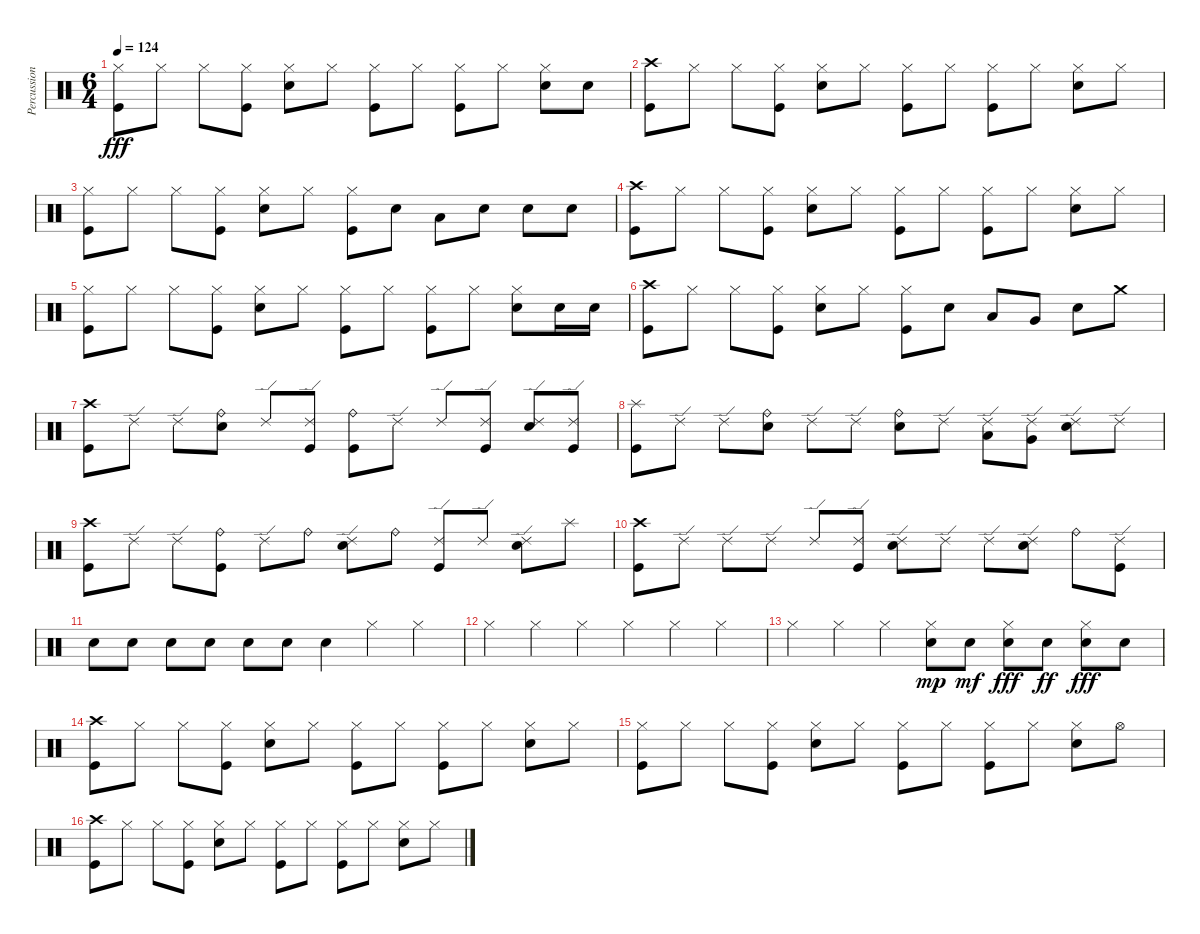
\track ("Percussion" "Percussion") {instrument percussion}
\staff {score}
\articulation defaults
\ts (6 4)
\tempo 124
\clef neutral
\ks c
("Hi-Hat (closed)" "Kick (hit)").8{dy fff} "Hi-Hat (closed)".8 "Hi-Hat (closed)".8 ("Hi-Hat (closed)" "Kick (hit)").8 ("Hi-Hat (closed)" "Snare (hit) 2").8 "Hi-Hat (closed)".8 ("Hi-Hat (closed)" "Kick (hit)").8 "Hi-Hat (closed)".8 ("Hi-Hat (closed)" "Kick (hit)").8 "Hi-Hat (closed)".8 ("Hi-Hat (closed)" "Snare (hit) 2").8 "Snare (hit) 2".8 |
("Crash high (hit)" "Kick (hit)").8 "Hi-Hat (closed)".8 "Hi-Hat (closed)".8 ("Hi-Hat (closed)" "Kick (hit)").8 ("Hi-Hat (closed)" "Snare (hit) 2").8 "Hi-Hat (closed)".8 ("Hi-Hat (closed)" "Kick (hit)").8 "Hi-Hat (closed)".8 ("Hi-Hat (closed)" "Kick (hit)").8 "Hi-Hat (closed)".8 ("Hi-Hat (closed)" "Snare (hit) 2").8 "Hi-Hat (closed)".8 |
("Hi-Hat (closed)" "Kick (hit)").8 "Hi-Hat (closed)".8 "Hi-Hat (closed)".8 ("Hi-Hat (closed)" "Kick (hit)").8 ("Hi-Hat (closed)" "Snare (hit) 2").8 "Hi-Hat (closed)".8 ("Hi-Hat (closed)" "Kick (hit)").8 "Snare (hit) 2".8 "Low Floor Tom (hit)".8 "Snare (hit) 2".8 "Snare (hit) 2".8 "Snare (hit) 2".8 |
("Crash high (hit)" "Kick (hit)").8 "Hi-Hat (closed)".8 "Hi-Hat (closed)".8 ("Hi-Hat (closed)" "Kick (hit)").8 ("Hi-Hat (closed)" "Snare (hit) 2").8 "Hi-Hat (closed)".8 ("Hi-Hat (closed)" "Kick (hit)").8 "Hi-Hat (closed)".8 ("Hi-Hat (closed)" "Kick (hit)").8 "Hi-Hat (closed)".8 ("Hi-Hat (closed)" "Snare (hit) 2").8 "Hi-Hat (closed)".8 |
("Hi-Hat (closed)" "Kick (hit)").8 "Hi-Hat (closed)".8 "Hi-Hat (closed)".8 ("Hi-Hat (closed)" "Kick (hit)").8 ("Hi-Hat (closed)" "Snare (hit) 2").8 "Hi-Hat (closed)".8 ("Hi-Hat (closed)" "Kick (hit)").8 "Hi-Hat (closed)".8 ("Hi-Hat (closed)" "Kick (hit)").8 "Hi-Hat (closed)".8 ("Hi-Hat (closed)" "Snare (hit) 2").8 "Snare (hit) 2".16 "Snare (hit) 2".16 |
("Crash high (hit)" "Kick (hit)").8 "Hi-Hat (closed)".8 "Hi-Hat (closed)".8 ("Hi-Hat (closed)" "Kick (hit)").8 ("Hi-Hat (closed)" "Snare (hit) 2").8 "Hi-Hat (closed)".8 ("Hi-Hat (closed)" "Kick (hit)").8 "Snare (hit) 2".8 "Low Tom (hit)".8 "Very Low Tom (hit)".8 "Snare (hit) 2".8 "Crash medium (hit)".8 |
("Crash high (hit)" "Kick (hit)").8 "Ride (edge) 2".8 "Ride (edge) 2".8 ("Ride (bell)" "Snare (hit) 2").8 "Ride (edge) 2".8 ("Ride (edge) 2" "Kick (hit)").8 ("Ride (bell)" "Kick (hit)").8 "Ride (edge) 2".8 "Ride (edge) 2".8 ("Ride (edge) 2" "Kick (hit)").8 ("Ride (edge) 2" "Snare (hit) 2").8 ("Ride (edge) 2" "Kick (hit)").8 |
("Splash (hit)" "Kick (hit)").8 "Ride (edge) 2".8 "Ride (edge) 2".8 ("Ride (bell)" "Snare (hit) 2").8 "Ride (edge) 2".8 "Ride (edge) 2".8 ("Ride (bell)" "Snare (hit) 2").8 "Ride (edge) 2".8 ("Ride (edge) 2" "Low Tom (hit)").8 ("Ride (edge) 2" "Very Low Tom (hit)").8 ("Ride (edge) 2" "Snare (hit) 2").8 "Ride (edge) 2".8 |
("Crash high (hit)" "Kick (hit)").8 "Ride (edge) 2".8 "Ride (edge) 2".8 ("Ride (bell)" "Kick (hit)").8 "Ride (edge) 2".8 "Ride (bell)".8 ("Ride (edge) 2" "Snare (hit) 2").8 "Ride (bell)".8 ("Ride (edge) 2" "Kick (hit)").8 "Ride (edge) 2".8 ("Ride (edge) 2" "Snare (hit) 2").8 "Splash (hit)".8 |
("Crash high (hit)" "Kick (hit)").8 "Ride (edge) 2".8 "Ride (edge) 2".8 "Ride (edge) 2".8 "Ride (edge) 2".8 ("Ride (edge) 2" "Kick (hit)").8 ("Ride (edge) 2" "Snare (hit) 2").8 "Ride (edge) 2".8 "Ride (edge) 2".8 ("Ride (edge) 2" "Snare (hit) 2").8 "Ride (bell)".8 ("Ride (edge) 2" "Kick (hit)").8 |
"Snare (hit) 2".8 "Snare (hit) 2".8 "Snare (hit) 2".8 "Snare (hit) 2".8 "Snare (hit) 2".8 "Snare (hit) 2".8 "Snare (hit) 2".4 "Hi-Hat (closed)".4 "Hi-Hat (closed)".4 |
"Hi-Hat (closed)".4 "Hi-Hat (closed)".4 "Hi-Hat (closed)".4 "Hi-Hat (closed)".4 "Hi-Hat (closed)".4 "Hi-Hat (closed)".4 |
"Hi-Hat (closed)".4 "Hi-Hat (closed)".4 "Hi-Hat (closed)".4 ("Hi-Hat (closed)" "Snare (hit) 2").8{dy mp} "Snare (hit) 2".8{dy mf} ("Hi-Hat (closed)" "Snare (hit) 2").8{dy fff} "Snare (hit) 2".8{dy ff} ("Hi-Hat (closed)" "Snare (hit) 2").8{dy fff} "Snare (hit) 2".8 |
("Crash high (hit)" "Kick (hit)").8 "Hi-Hat (closed)".8 "Hi-Hat (closed)".8 ("Hi-Hat (closed)" "Kick (hit)").8 ("Hi-Hat (closed)" "Snare (hit) 2").8 "Hi-Hat (closed)".8 ("Hi-Hat (closed)" "Kick (hit)").8 "Hi-Hat (closed)".8 ("Hi-Hat (closed)" "Kick (hit)").8 "Hi-Hat (closed)".8 ("Hi-Hat (closed)" "Snare (hit) 2").8 "Hi-Hat (closed)".8 |
("Hi-Hat (closed)" "Kick (hit)").8 "Hi-Hat (closed)".8 "Hi-Hat (closed)".8 ("Hi-Hat (closed)" "Kick (hit)").8 ("Hi-Hat (closed)" "Snare (hit) 2").8 "Hi-Hat (closed)".8 ("Hi-Hat (closed)" "Kick (hit)").8 "Hi-Hat (closed)".8 ("Hi-Hat (closed)" "Kick (hit)").8 "Hi-Hat (closed)".8 ("Hi-Hat (closed)" "Snare (hit) 2").8 "Hi-Hat (open)".8 |
("Crash high (hit)" "Kick (hit)").8 "Hi-Hat (closed)".8 "Hi-Hat (closed)".8 ("Hi-Hat (closed)" "Kick (hit)").8 ("Hi-Hat (closed)" "Snare (hit) 2").8 "Hi-Hat (closed)".8 ("Hi-Hat (closed)" "Kick (hit)").8 "Hi-Hat (closed)".8 ("Hi-Hat (closed)" "Kick (hit)").8 "Hi-Hat (closed)".8 ("Hi-Hat (closed)" "Snare (hit) 2").8 "Hi-Hat (closed)".8
